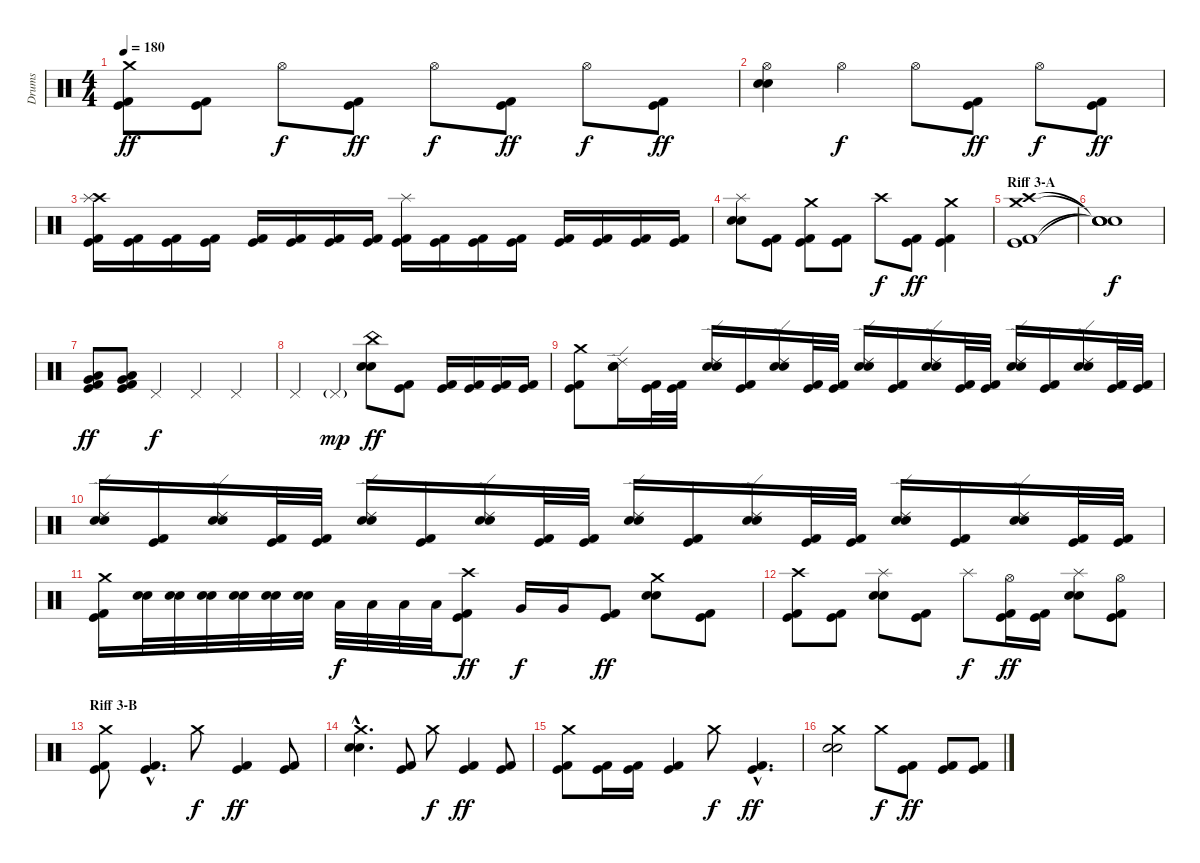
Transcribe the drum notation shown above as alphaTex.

\track ("Drums" "Drums") {instrument percussion}
\staff {score}
\articulation defaults
\ts (4 4)
\tempo 180
\clef neutral
\ks c
("Kick (hit)" "Kick (hit) 2" "Crash medium (hit)").8{dy ff} ("Kick (hit)" "Kick (hit) 2").8 "Hi-Hat (open)".8{dy f} ("Kick (hit)" "Kick (hit) 2").8{dy ff} "Hi-Hat (open)".8{dy f} ("Kick (hit)" "Kick (hit) 2").8{dy ff} "Hi-Hat (open)".8{dy f} ("Kick (hit)" "Kick (hit) 2").8{dy ff} |
("Electric Snare (hit)" "Electric Snare (hit)" "Hi-Hat (open)").4 "Hi-Hat (open)".4{dy f} "Hi-Hat (open)".8 ("Kick (hit)" "Kick (hit) 2").8{dy ff} "Hi-Hat (open)".8{dy f} ("Kick (hit)" "Kick (hit) 2").8{dy ff} |
("Kick (hit)" "Kick (hit) 2" "Crash high (hit)" "Splash (hit)").16 ("Kick (hit)" "Kick (hit) 2").16 ("Kick (hit)" "Kick (hit) 2").16 ("Kick (hit)" "Kick (hit) 2").16 ("Kick (hit)" "Kick (hit) 2").16 ("Kick (hit)" "Kick (hit) 2").16 ("Kick (hit)" "Kick (hit) 2").16 ("Kick (hit)" "Kick (hit) 2").16 ("Kick (hit)" "Kick (hit) 2" "Splash (hit)").16 ("Kick (hit)" "Kick (hit) 2").16 ("Kick (hit)" "Kick (hit) 2").16 ("Kick (hit)" "Kick (hit) 2").16 ("Kick (hit)" "Kick (hit) 2").16 ("Kick (hit)" "Kick (hit) 2").16 ("Kick (hit)" "Kick (hit) 2").16 ("Kick (hit)" "Kick (hit) 2").16 |
("Electric Snare (hit)" "Electric Snare (hit)" "Splash (hit)").8 ("Kick (hit)" "Kick (hit) 2").8 ("Kick (hit)" "Kick (hit) 2" "Crash medium (hit)").8 ("Kick (hit)" "Kick (hit) 2").8 "Crash high (hit)".8{dy f} ("Kick (hit)" "Kick (hit) 2").8{dy ff} ("Kick (hit)" "Kick (hit) 2" "Crash medium (hit)").4 |
\section ("" "Riff 3-A")
("Kick (hit)" "Kick (hit) 2" "Crash high (hit)" "Crash medium (hit)").1 |
("Snare (hit)"{t} "Snare (hit)"{t} "Snare (hit)"{t} "Snare (hit)"{t}).1{dy f} |
("Kick (hit)" "Kick (hit) 2" "Low Floor Tom (hit)" "Very Low Tom (hit)").8{dy ff} ("Kick (hit)" "Kick (hit) 2" "Low Floor Tom (hit)" "Very Low Tom (hit)").8 "Pedal Hi-Hat (hit)".4{dy f} "Pedal Hi-Hat (hit)".4 "Pedal Hi-Hat (hit)".4 |
"Pedal Hi-Hat (hit)".4 "Pedal Hi-Hat (hit)"{g}.4{dy mp} ("Electric Snare (hit)" "Electric Snare (hit)" "China (hit)").8{dy ff} ("Kick (hit)" "Kick (hit) 2").8 ("Kick (hit)" "Kick (hit) 2").16 ("Kick (hit)" "Kick (hit) 2").16 ("Kick (hit)" "Kick (hit) 2").16 ("Kick (hit)" "Kick (hit) 2").16 |
("Kick (hit)" "Kick (hit) 2" "Crash medium (hit)").8 ("Electric Snare (hit)" "Electric Snare (hit)" "Ride (edge) 2").16 ("Kick (hit)" "Kick (hit) 2").32 ("Kick (hit)" "Kick (hit) 2").32 ("Electric Snare (hit)" "Electric Snare (hit)" "Ride (edge) 2").16 ("Kick (hit)" "Kick (hit) 2").16 ("Electric Snare (hit)" "Electric Snare (hit)" "Ride (edge) 2").16 ("Kick (hit)" "Kick (hit) 2").32 ("Kick (hit)" "Kick (hit) 2").32 ("Electric Snare (hit)" "Electric Snare (hit)" "Ride (edge) 2").16 ("Kick (hit)" "Kick (hit) 2").16 ("Electric Snare (hit)" "Electric Snare (hit)" "Ride (edge) 2").16 ("Kick (hit)" "Kick (hit) 2").32 ("Kick (hit)" "Kick (hit) 2").32 ("Electric Snare (hit)" "Electric Snare (hit)" "Ride (edge) 2").16 ("Kick (hit)" "Kick (hit) 2").16 ("Electric Snare (hit)" "Electric Snare (hit)" "Ride (edge) 2").16 ("Kick (hit)" "Kick (hit) 2").32 ("Kick (hit)" "Kick (hit) 2").32 |
("Electric Snare (hit)" "Electric Snare (hit)" "Ride (edge) 2").16 ("Kick (hit)" "Kick (hit) 2").16 ("Electric Snare (hit)" "Electric Snare (hit)" "Ride (edge) 2").16 ("Kick (hit)" "Kick (hit) 2").32 ("Kick (hit)" "Kick (hit) 2").32 ("Electric Snare (hit)" "Electric Snare (hit)" "Ride (edge) 2").16 ("Kick (hit)" "Kick (hit) 2").16 ("Electric Snare (hit)" "Electric Snare (hit)" "Ride (edge) 2").16 ("Kick (hit)" "Kick (hit) 2").32 ("Kick (hit)" "Kick (hit) 2").32 ("Electric Snare (hit)" "Electric Snare (hit)" "Ride (edge) 2").16 ("Kick (hit)" "Kick (hit) 2").16 ("Electric Snare (hit)" "Electric Snare (hit)" "Ride (edge) 2").16 ("Kick (hit)" "Kick (hit) 2").32 ("Kick (hit)" "Kick (hit) 2").32 ("Electric Snare (hit)" "Electric Snare (hit)" "Ride (edge) 2").16 ("Kick (hit)" "Kick (hit) 2").16 ("Electric Snare (hit)" "Electric Snare (hit)" "Ride (edge) 2").16 ("Kick (hit)" "Kick (hit) 2").32 ("Kick (hit)" "Kick (hit) 2").32 |
("Kick (hit)" "Kick (hit) 2" "Crash medium (hit)").16 ("Electric Snare (hit)" "Electric Snare (hit)").32 ("Electric Snare (hit)" "Electric Snare (hit)").32 ("Electric Snare (hit)" "Electric Snare (hit)").32 ("Electric Snare (hit)" "Electric Snare (hit)").32 ("Electric Snare (hit)" "Electric Snare (hit)").32 ("Electric Snare (hit)" "Electric Snare (hit)").32 "Low Tom (hit)".32{dy f} "Low Tom (hit)".32 "Low Tom (hit)".32 "Low Tom (hit)".32 ("Kick (hit)" "Kick (hit) 2" "Crash high (hit)").8{dy ff} "Very Low Tom (hit)".16{dy f} "Very Low Tom (hit)".16 ("Kick (hit)" "Kick (hit) 2").8{dy ff} ("Electric Snare (hit)" "Electric Snare (hit)" "Crash medium (hit)").8 ("Kick (hit)" "Kick (hit) 2").8 |
("Kick (hit)" "Kick (hit) 2" "Crash high (hit)").8 ("Kick (hit)" "Kick (hit) 2").8 ("Electric Snare (hit)" "Electric Snare (hit)" "Splash (hit)").8 ("Kick (hit)" "Kick (hit) 2").8 "Splash (hit)".8{dy f} ("Kick (hit)" "Kick (hit) 2" "Hi-Hat (open)").16{dy ff} ("Kick (hit)" "Kick (hit) 2").16 ("Electric Snare (hit)" "Electric Snare (hit)" "Splash (hit)").8 ("Kick (hit)" "Kick (hit) 2" "Hi-Hat (open)").8 |
\section ("" "Riff 3-B")
("Kick (hit)" "Kick (hit) 2" "Crash medium (hit)").8 ("Kick (hit)"{hac} "Kick (hit) 2"{hac}).4{d} "Crash medium (hit)".8{dy f} ("Kick (hit)" "Kick (hit) 2").4{dy ff} ("Kick (hit)" "Kick (hit) 2").8 |
("Electric Snare (hit)"{hac} "Electric Snare (hit)"{hac} "Crash medium (hit)"{hac}).4{d} ("Kick (hit)" "Kick (hit) 2").8 "Crash medium (hit)".8{dy f} ("Kick (hit)" "Kick (hit) 2").4{dy ff} ("Kick (hit)" "Kick (hit) 2").8 |
("Kick (hit)" "Kick (hit) 2" "Crash medium (hit)").8 ("Kick (hit)" "Kick (hit) 2").16 ("Kick (hit)" "Kick (hit) 2").16 ("Kick (hit)" "Kick (hit) 2").4 "Crash medium (hit)".8{dy f} ("Kick (hit)"{hac} "Kick (hit) 2"{hac}).4{d dy ff} |
("Electric Snare (hit)" "Electric Snare (hit)" "Crash medium (hit)").2 "Crash medium (hit)".8{dy f} ("Kick (hit)" "Kick (hit) 2").8{dy ff} ("Kick (hit)" "Kick (hit) 2").8 ("Kick (hit)" "Kick (hit) 2").8
